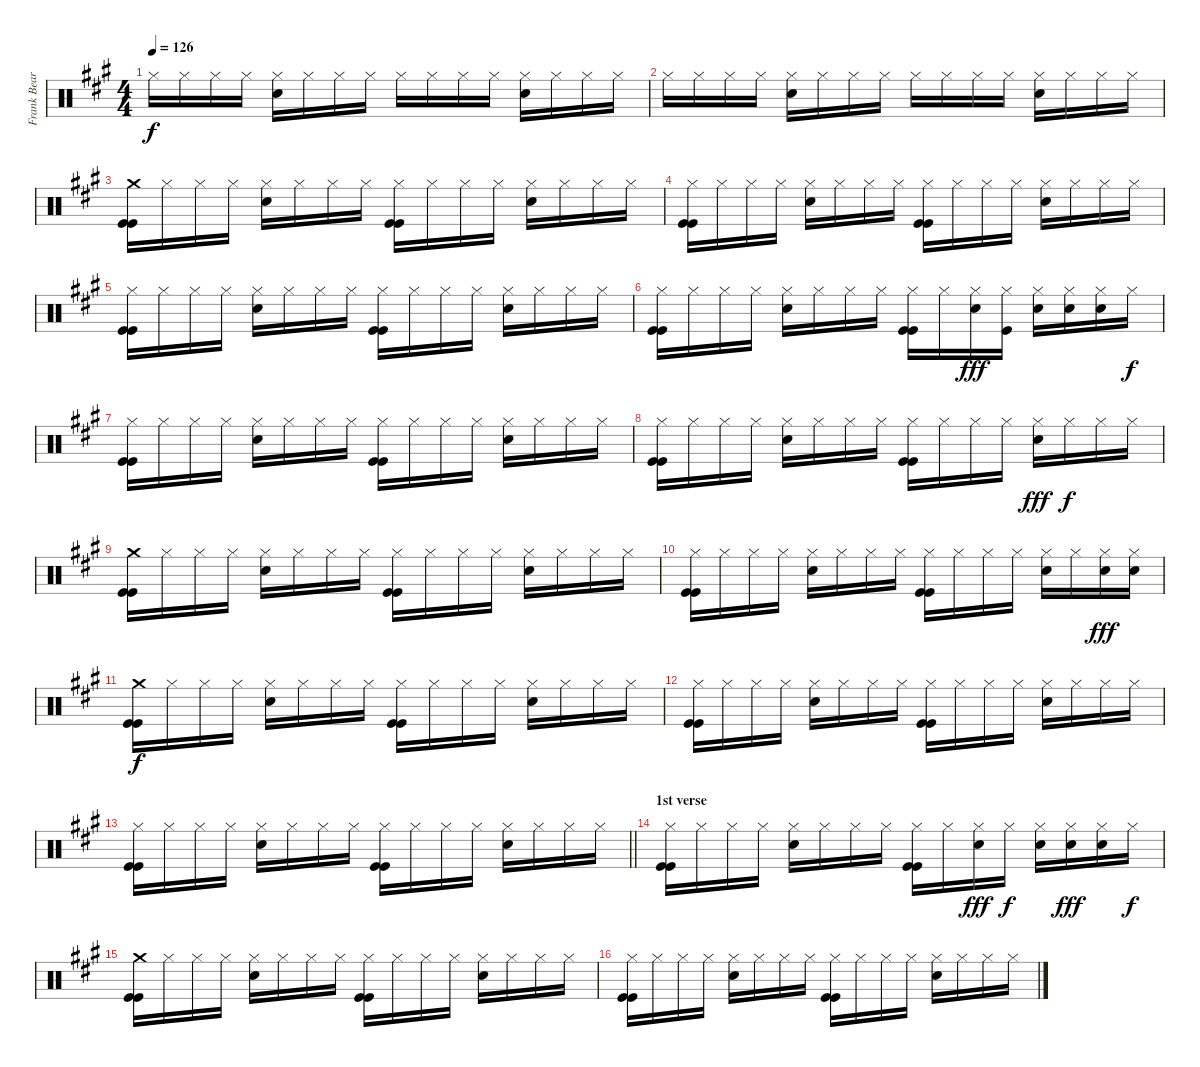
\track ("Frank Beard: Drums" "Frank Bear") {instrument percussion}
\staff {score}
\articulation defaults
\ts (4 4)
\tempo 126
\clef neutral
\ks a "Hi-Hat (closed)".16{dy f} "Hi-Hat (closed)".16 "Hi-Hat (closed)".16 "Hi-Hat (closed)".16
("Hi-Hat (closed)" "Electric Snare (hit)").16 "Hi-Hat (closed)".16 "Hi-Hat (closed)".16 "Hi-Hat (closed)".16 "Hi-Hat (closed)".16 "Hi-Hat (closed)".16 "Hi-Hat (closed)".16 "Hi-Hat (closed)".16 ("Hi-Hat (closed)" "Electric Snare (hit)").16 "Hi-Hat (closed)".16 "Hi-Hat (closed)".16 "Hi-Hat (closed)".16 |
"Hi-Hat (closed)".16 "Hi-Hat (closed)".16 "Hi-Hat (closed)".16 "Hi-Hat (closed)".16 ("Hi-Hat (closed)" "Electric Snare (hit)").16 "Hi-Hat (closed)".16 "Hi-Hat (closed)".16 "Hi-Hat (closed)".16 "Hi-Hat (closed)".16 "Hi-Hat (closed)".16 "Hi-Hat (closed)".16 "Hi-Hat (closed)".16 ("Hi-Hat (closed)" "Electric Snare (hit)").16 "Hi-Hat (closed)".16 "Hi-Hat (closed)".16 "Hi-Hat (closed)".16 |
("Crash medium (hit)" "Kick (hit)" "Kick (hit)").16 "Hi-Hat (closed)".16 "Hi-Hat (closed)".16 "Hi-Hat (closed)".16 ("Hi-Hat (closed)" "Electric Snare (hit)").16 "Hi-Hat (closed)".16 "Hi-Hat (closed)".16 "Hi-Hat (closed)".16 ("Hi-Hat (closed)" "Kick (hit)" "Kick (hit)").16 "Hi-Hat (closed)".16 "Hi-Hat (closed)".16 "Hi-Hat (closed)".16 ("Hi-Hat (closed)" "Electric Snare (hit)").16 "Hi-Hat (closed)".16 "Hi-Hat (closed)".16 "Hi-Hat (closed)".16 |
("Hi-Hat (closed)" "Kick (hit)" "Kick (hit)").16 "Hi-Hat (closed)".16 "Hi-Hat (closed)".16 "Hi-Hat (closed)".16 ("Hi-Hat (closed)" "Electric Snare (hit)").16 "Hi-Hat (closed)".16 "Hi-Hat (closed)".16 "Hi-Hat (closed)".16 ("Hi-Hat (closed)" "Kick (hit)" "Kick (hit)").16 "Hi-Hat (closed)".16 "Hi-Hat (closed)".16 "Hi-Hat (closed)".16 ("Hi-Hat (closed)" "Electric Snare (hit)").16 "Hi-Hat (closed)".16 "Hi-Hat (closed)".16 "Hi-Hat (closed)".16 |
("Hi-Hat (closed)" "Kick (hit)" "Kick (hit)").16 "Hi-Hat (closed)".16 "Hi-Hat (closed)".16 "Hi-Hat (closed)".16 ("Hi-Hat (closed)" "Electric Snare (hit)").16 "Hi-Hat (closed)".16 "Hi-Hat (closed)".16 "Hi-Hat (closed)".16 ("Hi-Hat (closed)" "Kick (hit)" "Kick (hit)").16 "Hi-Hat (closed)".16 "Hi-Hat (closed)".16 "Hi-Hat (closed)".16 ("Hi-Hat (closed)" "Electric Snare (hit)").16 "Hi-Hat (closed)".16 "Hi-Hat (closed)".16 "Hi-Hat (closed)".16 |
("Hi-Hat (closed)" "Kick (hit)" "Kick (hit)").16 "Hi-Hat (closed)".16 "Hi-Hat (closed)".16 "Hi-Hat (closed)".16 ("Hi-Hat (closed)" "Electric Snare (hit)").16 "Hi-Hat (closed)".16 "Hi-Hat (closed)".16 "Hi-Hat (closed)".16 ("Hi-Hat (closed)" "Kick (hit)" "Kick (hit)").16 "Hi-Hat (closed)".16 ("Hi-Hat (closed)" "Electric Snare (hit)").16{dy fff} ("Hi-Hat (closed)" "Kick (hit)").16 ("Hi-Hat (closed)" "Electric Snare (hit)").16 ("Hi-Hat (closed)" "Electric Snare (hit)").16 ("Hi-Hat (closed)" "Electric Snare (hit)").16 "Hi-Hat (closed)".16{dy f} |
("Hi-Hat (closed)" "Kick (hit)" "Kick (hit)").16 "Hi-Hat (closed)".16 "Hi-Hat (closed)".16 "Hi-Hat (closed)".16 ("Hi-Hat (closed)" "Electric Snare (hit)").16 "Hi-Hat (closed)".16 "Hi-Hat (closed)".16 "Hi-Hat (closed)".16 ("Hi-Hat (closed)" "Kick (hit)" "Kick (hit)").16 "Hi-Hat (closed)".16 "Hi-Hat (closed)".16 "Hi-Hat (closed)".16 ("Hi-Hat (closed)" "Electric Snare (hit)").16 "Hi-Hat (closed)".16 "Hi-Hat (closed)".16 "Hi-Hat (closed)".16 |
("Hi-Hat (closed)" "Kick (hit)" "Kick (hit)").16 "Hi-Hat (closed)".16 "Hi-Hat (closed)".16 "Hi-Hat (closed)".16 ("Hi-Hat (closed)" "Electric Snare (hit)").16 "Hi-Hat (closed)".16 "Hi-Hat (closed)".16 "Hi-Hat (closed)".16 ("Hi-Hat (closed)" "Kick (hit)" "Kick (hit)").16 "Hi-Hat (closed)".16 "Hi-Hat (closed)".16 "Hi-Hat (closed)".16 ("Hi-Hat (closed)" "Electric Snare (hit)").16{dy fff} "Hi-Hat (closed)".16{dy f} "Hi-Hat (closed)".16 "Hi-Hat (closed)".16 |
("Crash medium (hit)" "Kick (hit)" "Kick (hit)").16 "Hi-Hat (closed)".16 "Hi-Hat (closed)".16 "Hi-Hat (closed)".16 ("Hi-Hat (closed)" "Electric Snare (hit)").16 "Hi-Hat (closed)".16 "Hi-Hat (closed)".16 "Hi-Hat (closed)".16 ("Hi-Hat (closed)" "Kick (hit)" "Kick (hit)").16 "Hi-Hat (closed)".16 "Hi-Hat (closed)".16 "Hi-Hat (closed)".16 ("Hi-Hat (closed)" "Electric Snare (hit)").16 "Hi-Hat (closed)".16 "Hi-Hat (closed)".16 "Hi-Hat (closed)".16 |
("Hi-Hat (closed)" "Kick (hit)" "Kick (hit)").16 "Hi-Hat (closed)".16 "Hi-Hat (closed)".16 "Hi-Hat (closed)".16 ("Hi-Hat (closed)" "Electric Snare (hit)").16 "Hi-Hat (closed)".16 "Hi-Hat (closed)".16 "Hi-Hat (closed)".16 ("Hi-Hat (closed)" "Kick (hit)" "Kick (hit)").16 "Hi-Hat (closed)".16 "Hi-Hat (closed)".16 "Hi-Hat (closed)".16 ("Hi-Hat (closed)" "Electric Snare (hit)").16 "Hi-Hat (closed)".16 ("Hi-Hat (closed)" "Electric Snare (hit)").16{dy fff} ("Hi-Hat (closed)" "Electric Snare (hit)").16 |
("Crash medium (hit)" "Kick (hit)" "Kick (hit)").16{dy f} "Hi-Hat (closed)".16 "Hi-Hat (closed)".16 "Hi-Hat (closed)".16 ("Hi-Hat (closed)" "Electric Snare (hit)").16 "Hi-Hat (closed)".16 "Hi-Hat (closed)".16 "Hi-Hat (closed)".16 ("Hi-Hat (closed)" "Kick (hit)" "Kick (hit)").16 "Hi-Hat (closed)".16 "Hi-Hat (closed)".16 "Hi-Hat (closed)".16 ("Hi-Hat (closed)" "Electric Snare (hit)").16 "Hi-Hat (closed)".16 "Hi-Hat (closed)".16 "Hi-Hat (closed)".16 |
("Hi-Hat (closed)" "Kick (hit)" "Kick (hit)").16 "Hi-Hat (closed)".16 "Hi-Hat (closed)".16 "Hi-Hat (closed)".16 ("Hi-Hat (closed)" "Electric Snare (hit)").16 "Hi-Hat (closed)".16 "Hi-Hat (closed)".16 "Hi-Hat (closed)".16 ("Hi-Hat (closed)" "Kick (hit)" "Kick (hit)").16 "Hi-Hat (closed)".16 "Hi-Hat (closed)".16 "Hi-Hat (closed)".16 ("Hi-Hat (closed)" "Electric Snare (hit)").16 "Hi-Hat (closed)".16 "Hi-Hat (closed)".16 "Hi-Hat (closed)".16 |
\barLineRight lightlight
("Hi-Hat (closed)" "Kick (hit)" "Kick (hit)").16 "Hi-Hat (closed)".16 "Hi-Hat (closed)".16 "Hi-Hat (closed)".16 ("Hi-Hat (closed)" "Electric Snare (hit)").16 "Hi-Hat (closed)".16 "Hi-Hat (closed)".16 "Hi-Hat (closed)".16 ("Hi-Hat (closed)" "Kick (hit)" "Kick (hit)").16 "Hi-Hat (closed)".16 "Hi-Hat (closed)".16 "Hi-Hat (closed)".16 ("Hi-Hat (closed)" "Electric Snare (hit)").16 "Hi-Hat (closed)".16 "Hi-Hat (closed)".16 "Hi-Hat (closed)".16 |
\section ("" "1st verse")
("Hi-Hat (closed)" "Kick (hit)" "Kick (hit)").16 "Hi-Hat (closed)".16 "Hi-Hat (closed)".16 "Hi-Hat (closed)".16 ("Hi-Hat (closed)" "Electric Snare (hit)").16 "Hi-Hat (closed)".16 "Hi-Hat (closed)".16 "Hi-Hat (closed)".16 ("Hi-Hat (closed)" "Kick (hit)" "Kick (hit)").16 "Hi-Hat (closed)".16 ("Hi-Hat (closed)" "Electric Snare (hit)").16{dy fff} "Hi-Hat (closed)".16{dy f} ("Hi-Hat (closed)" "Electric Snare (hit)").16 ("Hi-Hat (closed)" "Electric Snare (hit)").16{dy fff} ("Hi-Hat (closed)" "Electric Snare (hit)").16 "Hi-Hat (closed)".16{dy f} |
("Crash medium (hit)" "Kick (hit)" "Kick (hit)").16 "Hi-Hat (closed)".16 "Hi-Hat (closed)".16 "Hi-Hat (closed)".16 ("Hi-Hat (closed)" "Electric Snare (hit)").16 "Hi-Hat (closed)".16 "Hi-Hat (closed)".16 "Hi-Hat (closed)".16 ("Hi-Hat (closed)" "Kick (hit)" "Kick (hit)").16 "Hi-Hat (closed)".16 "Hi-Hat (closed)".16 "Hi-Hat (closed)".16 ("Hi-Hat (closed)" "Electric Snare (hit)").16 "Hi-Hat (closed)".16 "Hi-Hat (closed)".16 "Hi-Hat (closed)".16 |
("Hi-Hat (closed)" "Kick (hit)" "Kick (hit)").16 "Hi-Hat (closed)".16 "Hi-Hat (closed)".16 "Hi-Hat (closed)".16 ("Hi-Hat (closed)" "Electric Snare (hit)").16 "Hi-Hat (closed)".16 "Hi-Hat (closed)".16 "Hi-Hat (closed)".16 ("Hi-Hat (closed)" "Kick (hit)" "Kick (hit)").16 "Hi-Hat (closed)".16 "Hi-Hat (closed)".16 "Hi-Hat (closed)".16 ("Hi-Hat (closed)" "Electric Snare (hit)").16 "Hi-Hat (closed)".16 "Hi-Hat (closed)".16 "Hi-Hat (closed)".16
